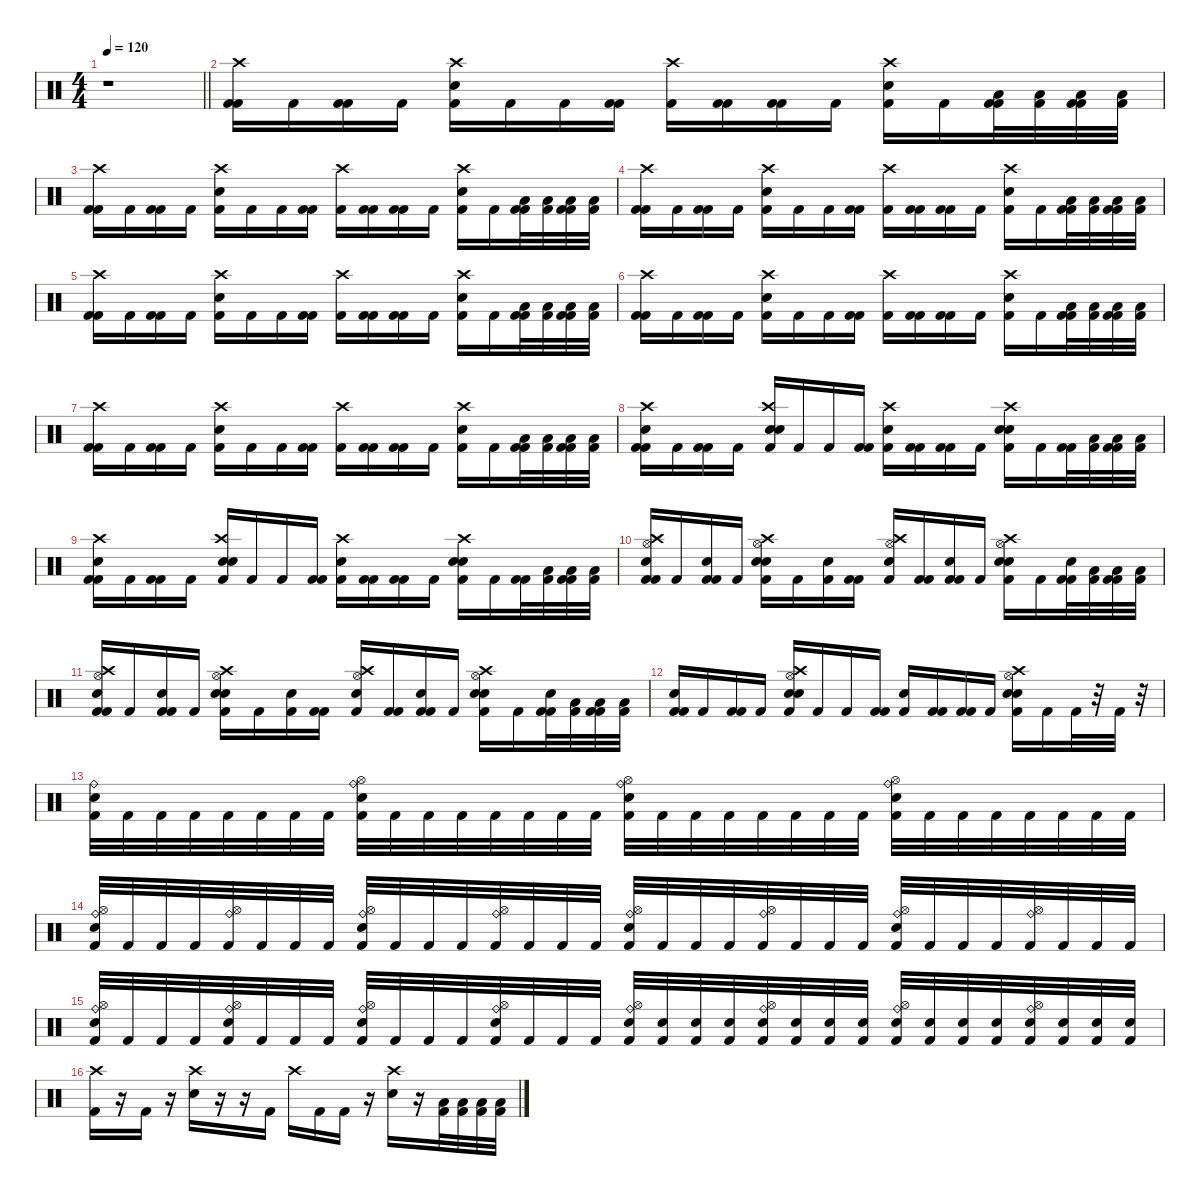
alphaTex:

\defaultSystemsLayout 4
\hideDynamics
\bracketExtendMode nobrackets
\singleTrackTrackNamePolicy hidden
\multiTrackTrackNamePolicy hidden
\firstSystemTrackNameMode fullname
\firstSystemTrackNameOrientation horizontal
\otherSystemsTrackNameOrientation horizontal
\track ("DRUMS" "drm.") {defaultSystemsLayout 4 instrument percussion}
\staff {score}
\articulation defaults
\ts (4 4)
\tempo 120
\clef neutral
\barLineRight lightlight
\ks c
r.1{dy f beam Down} |
("Crash high (hit)" "Kick (hit) 2" "Kick (hit) 2").16{beam Down} "Kick (hit) 2".16{beam Down} ("Kick (hit) 2" "Kick (hit) 2").16{beam Down} "Kick (hit) 2".16{beam Down} ("Crash high (hit)" "Kick (hit) 2" "Snare (hit) 2").16{beam Down} "Kick (hit) 2".16{beam Down} "Kick (hit) 2".16{beam Down} ("Kick (hit) 2" "Kick (hit) 2").16{beam Down} ("Crash high (hit)" "Kick (hit) 2").16{beam Down} ("Kick (hit) 2" "Kick (hit) 2").16{beam Down} ("Kick (hit) 2" "Kick (hit) 2").16{beam Down} "Kick (hit) 2".16{beam Down} ("Crash high (hit)" "Kick (hit) 2" "Snare (hit) 2").16{beam Down} "Kick (hit) 2".16{beam Down} ("Kick (hit) 2" "Low Tom (hit)" "Kick (hit) 2").32{beam Down} ("Low Tom (hit)" "Kick (hit) 2").32{beam Down} ("Kick (hit) 2" "Low Tom (hit)" "Kick (hit) 2").32{beam Down} ("Low Tom (hit)" "Kick (hit) 2").32{beam Down} |
("Crash high (hit)" "Kick (hit) 2" "Kick (hit) 2").16{beam Down} "Kick (hit) 2".16{beam Down} ("Kick (hit) 2" "Kick (hit) 2").16{beam Down} "Kick (hit) 2".16{beam Down} ("Crash high (hit)" "Kick (hit) 2" "Snare (hit) 2").16{beam Down} "Kick (hit) 2".16{beam Down} "Kick (hit) 2".16{beam Down} ("Kick (hit) 2" "Kick (hit) 2").16{beam Down} ("Crash high (hit)" "Kick (hit) 2").16{beam Down} ("Kick (hit) 2" "Kick (hit) 2").16{beam Down} ("Kick (hit) 2" "Kick (hit) 2").16{beam Down} "Kick (hit) 2".16{beam Down} ("Crash high (hit)" "Kick (hit) 2" "Snare (hit) 2").16{beam Down} "Kick (hit) 2".16{beam Down} ("Kick (hit) 2" "Low Tom (hit)" "Kick (hit) 2").32{beam Down} ("Low Tom (hit)" "Kick (hit) 2").32{beam Down} ("Kick (hit) 2" "Low Tom (hit)" "Kick (hit) 2").32{beam Down} ("Low Tom (hit)" "Kick (hit) 2").32{beam Down} |
("Crash high (hit)" "Kick (hit) 2" "Kick (hit) 2").16{beam Down} "Kick (hit) 2".16{beam Down} ("Kick (hit) 2" "Kick (hit) 2").16{beam Down} "Kick (hit) 2".16{beam Down} ("Crash high (hit)" "Kick (hit) 2" "Snare (hit) 2").16{beam Down} "Kick (hit) 2".16{beam Down} "Kick (hit) 2".16{beam Down} ("Kick (hit) 2" "Kick (hit) 2").16{beam Down} ("Crash high (hit)" "Kick (hit) 2").16{beam Down} ("Kick (hit) 2" "Kick (hit) 2").16{beam Down} ("Kick (hit) 2" "Kick (hit) 2").16{beam Down} "Kick (hit) 2".16{beam Down} ("Crash high (hit)" "Kick (hit) 2" "Snare (hit) 2").16{beam Down} "Kick (hit) 2".16{beam Down} ("Kick (hit) 2" "Low Tom (hit)" "Kick (hit) 2").32{beam Down} ("Low Tom (hit)" "Kick (hit) 2").32{beam Down} ("Kick (hit) 2" "Low Tom (hit)" "Kick (hit) 2").32{beam Down} ("Low Tom (hit)" "Kick (hit) 2").32{beam Down} |
("Crash high (hit)" "Kick (hit) 2" "Kick (hit) 2").16{beam Down} "Kick (hit) 2".16{beam Down} ("Kick (hit) 2" "Kick (hit) 2").16{beam Down} "Kick (hit) 2".16{beam Down} ("Crash high (hit)" "Kick (hit) 2" "Snare (hit) 2").16{beam Down} "Kick (hit) 2".16{beam Down} "Kick (hit) 2".16{beam Down} ("Kick (hit) 2" "Kick (hit) 2").16{beam Down} ("Crash high (hit)" "Kick (hit) 2").16{beam Down} ("Kick (hit) 2" "Kick (hit) 2").16{beam Down} ("Kick (hit) 2" "Kick (hit) 2").16{beam Down} "Kick (hit) 2".16{beam Down} ("Crash high (hit)" "Kick (hit) 2" "Snare (hit) 2").16{beam Down} "Kick (hit) 2".16{beam Down} ("Kick (hit) 2" "Low Tom (hit)" "Kick (hit) 2").32{beam Down} ("Low Tom (hit)" "Kick (hit) 2").32{beam Down} ("Kick (hit) 2" "Low Tom (hit)" "Kick (hit) 2").32{beam Down} ("Low Tom (hit)" "Kick (hit) 2").32{beam Down} |
("Crash high (hit)" "Kick (hit) 2" "Kick (hit) 2").16{beam Down} "Kick (hit) 2".16{beam Down} ("Kick (hit) 2" "Kick (hit) 2").16{beam Down} "Kick (hit) 2".16{beam Down} ("Crash high (hit)" "Kick (hit) 2" "Snare (hit) 2").16{beam Down} "Kick (hit) 2".16{beam Down} "Kick (hit) 2".16{beam Down} ("Kick (hit) 2" "Kick (hit) 2").16{beam Down} ("Crash high (hit)" "Kick (hit) 2").16{beam Down} ("Kick (hit) 2" "Kick (hit) 2").16{beam Down} ("Kick (hit) 2" "Kick (hit) 2").16{beam Down} "Kick (hit) 2".16{beam Down} ("Crash high (hit)" "Kick (hit) 2" "Snare (hit) 2").16{beam Down} "Kick (hit) 2".16{beam Down} ("Kick (hit) 2" "Low Tom (hit)" "Kick (hit) 2").32{beam Down} ("Low Tom (hit)" "Kick (hit) 2").32{beam Down} ("Kick (hit) 2" "Low Tom (hit)" "Kick (hit) 2").32{beam Down} ("Low Tom (hit)" "Kick (hit) 2").32{beam Down} |
("Crash high (hit)" "Kick (hit) 2" "Kick (hit) 2").16{beam Down} "Kick (hit) 2".16{beam Down} ("Kick (hit) 2" "Kick (hit) 2").16{beam Down} "Kick (hit) 2".16{beam Down} ("Crash high (hit)" "Kick (hit) 2" "Snare (hit) 2").16{beam Down} "Kick (hit) 2".16{beam Down} "Kick (hit) 2".16{beam Down} ("Kick (hit) 2" "Kick (hit) 2").16{beam Down} ("Crash high (hit)" "Kick (hit) 2").16{beam Down} ("Kick (hit) 2" "Kick (hit) 2").16{beam Down} ("Kick (hit) 2" "Kick (hit) 2").16{beam Down} "Kick (hit) 2".16{beam Down} ("Crash high (hit)" "Kick (hit) 2" "Snare (hit) 2").16{beam Down} "Kick (hit) 2".16{beam Down} ("Kick (hit) 2" "Low Tom (hit)" "Kick (hit) 2").32{beam Down} ("Low Tom (hit)" "Kick (hit) 2").32{beam Down} ("Kick (hit) 2" "Low Tom (hit)" "Kick (hit) 2").32{beam Down} ("Low Tom (hit)" "Kick (hit) 2").32{beam Down} |
("Crash high (hit)" "Kick (hit) 2" "Snare (hit) 2" "Kick (hit) 2").16{beam Down} "Kick (hit) 2".16{beam Down} ("Kick (hit) 2" "Kick (hit) 2").16{beam Down} "Kick (hit) 2".16{beam Down} ("Crash high (hit)" "Kick (hit) 2" "Snare (hit) 2" "Snare (hit) 2").16{beam Up} "Kick (hit) 2".16{beam Up} "Kick (hit) 2".16{beam Up} ("Kick (hit) 2" "Kick (hit) 2").16{beam Up} ("Crash high (hit)" "Kick (hit) 2" "Snare (hit) 2").16{beam Down} ("Kick (hit) 2" "Kick (hit) 2").16{beam Down} ("Kick (hit) 2" "Kick (hit) 2").16{beam Down} "Kick (hit) 2".16{beam Down} ("Crash high (hit)" "Kick (hit) 2" "Snare (hit) 2" "Snare (hit) 2").16{beam Down} "Kick (hit) 2".16{beam Down} ("Kick (hit) 2" "Kick (hit) 2").32{beam Down} ("Low Tom (hit)" "Kick (hit) 2").32{beam Down} ("Kick (hit) 2" "Low Tom (hit)" "Kick (hit) 2").32{beam Down} ("Low Tom (hit)" "Kick (hit) 2").32{beam Down} |
("Crash high (hit)" "Kick (hit) 2" "Snare (hit) 2" "Kick (hit) 2").16{beam Down} "Kick (hit) 2".16{beam Down} ("Kick (hit) 2" "Kick (hit) 2").16{beam Down} "Kick (hit) 2".16{beam Down} ("Crash high (hit)" "Kick (hit) 2" "Snare (hit) 2" "Snare (hit) 2").16{beam Up} "Kick (hit) 2".16{beam Up} "Kick (hit) 2".16{beam Up} ("Kick (hit) 2" "Kick (hit) 2").16{beam Up} ("Crash high (hit)" "Kick (hit) 2" "Snare (hit) 2").16{beam Down} ("Kick (hit) 2" "Kick (hit) 2").16{beam Down} ("Kick (hit) 2" "Kick (hit) 2").16{beam Down} "Kick (hit) 2".16{beam Down} ("Crash high (hit)" "Kick (hit) 2" "Snare (hit) 2" "Snare (hit) 2").16{beam Down} "Kick (hit) 2".16{beam Down} ("Kick (hit) 2" "Kick (hit) 2").32{beam Down} ("Low Tom (hit)" "Kick (hit) 2").32{beam Down} ("Kick (hit) 2" "Low Tom (hit)" "Kick (hit) 2").32{beam Down} ("Low Tom (hit)" "Kick (hit) 2").32{beam Down} |
("Hi-Hat (open)" "Crash high (hit)" "Kick (hit) 2" "Snare (hit) 2" "Kick (hit) 2").16{beam Up} "Kick (hit) 2".16{beam Up} ("Kick (hit) 2" "Snare (hit) 2" "Kick (hit) 2").16{beam Up} "Kick (hit) 2".16{beam Up} ("Hi-Hat (open)" "Crash high (hit)" "Kick (hit) 2" "Snare (hit) 2" "Snare (hit) 2").16{beam Down} "Kick (hit) 2".16{beam Down} ("Kick (hit) 2" "Snare (hit) 2").16{beam Down} ("Kick (hit) 2" "Kick (hit) 2").16{beam Down} ("Hi-Hat (open)" "Crash high (hit)" "Kick (hit) 2" "Snare (hit) 2").16{beam Up} ("Kick (hit) 2" "Kick (hit) 2").16{beam Up} ("Kick (hit) 2" "Snare (hit) 2" "Kick (hit) 2").16{beam Up} "Kick (hit) 2".16{beam Up} ("Hi-Hat (open)" "Crash high (hit)" "Kick (hit) 2" "Snare (hit) 2" "Snare (hit) 2").16{beam Down} "Kick (hit) 2".16{beam Down} ("Kick (hit) 2" "Snare (hit) 2" "Kick (hit) 2").32{beam Down} ("Low Tom (hit)" "Kick (hit) 2").32{beam Down} ("Kick (hit) 2" "Low Tom (hit)" "Kick (hit) 2").32{beam Down} ("Low Tom (hit)" "Kick (hit) 2").32{beam Down} |
("Hi-Hat (open)" "Crash high (hit)" "Kick (hit) 2" "Snare (hit) 2" "Kick (hit) 2").16{beam Up} "Kick (hit) 2".16{beam Up} ("Kick (hit) 2" "Snare (hit) 2" "Kick (hit) 2").16{beam Up} "Kick (hit) 2".16{beam Up} ("Hi-Hat (open)" "Crash high (hit)" "Kick (hit) 2" "Snare (hit) 2" "Snare (hit) 2").16{beam Down} "Kick (hit) 2".16{beam Down} ("Kick (hit) 2" "Snare (hit) 2").16{beam Down} ("Kick (hit) 2" "Kick (hit) 2").16{beam Down} ("Hi-Hat (open)" "Crash high (hit)" "Kick (hit) 2" "Snare (hit) 2").16{beam Up} ("Kick (hit) 2" "Kick (hit) 2").16{beam Up} ("Kick (hit) 2" "Snare (hit) 2" "Kick (hit) 2").16{beam Up} "Kick (hit) 2".16{beam Up} ("Hi-Hat (open)" "Crash high (hit)" "Kick (hit) 2" "Snare (hit) 2" "Snare (hit) 2").16{beam Down} "Kick (hit) 2".16{beam Down} ("Kick (hit) 2" "Snare (hit) 2" "Kick (hit) 2").32{beam Down} ("Low Tom (hit)" "Kick (hit) 2").32{beam Down} ("Kick (hit) 2" "Low Tom (hit)" "Kick (hit) 2").32{beam Down} ("Low Tom (hit)" "Kick (hit) 2").32{beam Down} |
("Kick (hit) 2" "Snare (hit) 2" "Kick (hit) 2").16{beam Up} "Kick (hit) 2".16{beam Up} ("Kick (hit) 2" "Kick (hit) 2").16{beam Up} "Kick (hit) 2".16{beam Up} ("Hi-Hat (open)" "Crash high (hit)" "Kick (hit) 2" "Snare (hit) 2" "Snare (hit) 2").16{beam Up} "Kick (hit) 2".16{beam Up} "Kick (hit) 2".16{beam Up} ("Kick (hit) 2" "Kick (hit) 2").16{beam Up} ("Kick (hit) 2" "Snare (hit) 2").16{beam Up} ("Kick (hit) 2" "Kick (hit) 2").16{beam Up} ("Kick (hit) 2" "Kick (hit) 2").16{beam Up} "Kick (hit) 2".16{beam Up} ("Hi-Hat (open)" "Crash high (hit)" "Kick (hit) 2" "Snare (hit) 2" "Snare (hit) 2").16{beam Down} "Kick (hit) 2".16{beam Down} "Kick (hit) 2".32{beam Down} r.32{beam Down} "Kick (hit) 2".32{beam Down} r.32{beam Down} |
("Ride (bell)" "Kick (hit) 2" "Snare (hit) 2").32{beam Down} "Kick (hit) 2".32{beam Down} "Kick (hit) 2".32{beam Down} "Kick (hit) 2".32{beam Down} "Kick (hit) 2".32{beam Down} "Kick (hit) 2".32{beam Down} "Kick (hit) 2".32{beam Down} "Kick (hit) 2".32{beam Down} ("Hi-Hat (open)" "Ride (bell)" "Kick (hit) 2" "Snare (hit) 2").32{beam Down} "Kick (hit) 2".32{beam Down} "Kick (hit) 2".32{beam Down} "Kick (hit) 2".32{beam Down} "Kick (hit) 2".32{beam Down} "Kick (hit) 2".32{beam Down} "Kick (hit) 2".32{beam Down} "Kick (hit) 2".32{beam Down} ("Hi-Hat (open)" "Ride (bell)" "Kick (hit) 2" "Snare (hit) 2").32{beam Down} "Kick (hit) 2".32{beam Down} "Kick (hit) 2".32{beam Down} "Kick (hit) 2".32{beam Down} "Kick (hit) 2".32{beam Down} "Kick (hit) 2".32{beam Down} "Kick (hit) 2".32{beam Down} "Kick (hit) 2".32{beam Down} ("Hi-Hat (open)" "Ride (bell)" "Kick (hit) 2" "Snare (hit) 2").32{beam Down} "Kick (hit) 2".32{beam Down} "Kick (hit) 2".32{beam Down} "Kick (hit) 2".32{beam Down} "Kick (hit) 2".32{beam Down} "Kick (hit) 2".32{beam Down} "Kick (hit) 2".32{beam Down} "Kick (hit) 2".32{beam Down} |
("Hi-Hat (open)" "Ride (bell)" "Kick (hit) 2" "Snare (hit) 2").32{beam Up} "Kick (hit) 2".32{beam Up} "Kick (hit) 2".32{beam Up} "Kick (hit) 2".32{beam Up} ("Hi-Hat (open)" "Ride (bell)" "Kick (hit) 2").32{beam Up} "Kick (hit) 2".32{beam Up} "Kick (hit) 2".32{beam Up} "Kick (hit) 2".32{beam Up} ("Hi-Hat (open)" "Ride (bell)" "Kick (hit) 2" "Snare (hit) 2").32{beam Up} "Kick (hit) 2".32{beam Up} "Kick (hit) 2".32{beam Up} "Kick (hit) 2".32{beam Up} ("Hi-Hat (open)" "Ride (bell)" "Kick (hit) 2").32{beam Up} "Kick (hit) 2".32{beam Up} "Kick (hit) 2".32{beam Up} "Kick (hit) 2".32{beam Up} ("Hi-Hat (open)" "Ride (bell)" "Kick (hit) 2" "Snare (hit) 2").32{beam Up} "Kick (hit) 2".32{beam Up} "Kick (hit) 2".32{beam Up} "Kick (hit) 2".32{beam Up} ("Hi-Hat (open)" "Ride (bell)" "Kick (hit) 2").32{beam Up} "Kick (hit) 2".32{beam Up} "Kick (hit) 2".32{beam Up} "Kick (hit) 2".32{beam Up} ("Hi-Hat (open)" "Ride (bell)" "Kick (hit) 2" "Snare (hit) 2").32{beam Up} "Kick (hit) 2".32{beam Up} "Kick (hit) 2".32{beam Up} "Kick (hit) 2".32{beam Up} ("Hi-Hat (open)" "Ride (bell)" "Kick (hit) 2").32{beam Up} "Kick (hit) 2".32{beam Up} "Kick (hit) 2".32{beam Up} "Kick (hit) 2".32{beam Up} |
("Hi-Hat (open)" "Ride (bell)" "Kick (hit) 2" "Snare (hit) 2").32{beam Up} "Kick (hit) 2".32{beam Up} "Kick (hit) 2".32{beam Up} "Kick (hit) 2".32{beam Up} ("Hi-Hat (open)" "Ride (bell)" "Kick (hit) 2" "Snare (hit) 2").32{beam Up} "Kick (hit) 2".32{beam Up} "Kick (hit) 2".32{beam Up} "Kick (hit) 2".32{beam Up} ("Hi-Hat (open)" "Ride (bell)" "Kick (hit) 2" "Snare (hit) 2").32{beam Up} "Kick (hit) 2".32{beam Up} "Kick (hit) 2".32{beam Up} "Kick (hit) 2".32{beam Up} ("Hi-Hat (open)" "Ride (bell)" "Kick (hit) 2" "Snare (hit) 2").32{beam Up} "Kick (hit) 2".32{beam Up} "Kick (hit) 2".32{beam Up} "Kick (hit) 2".32{beam Up} ("Hi-Hat (open)" "Ride (bell)" "Kick (hit) 2" "Snare (hit) 2").32{beam Up} ("Kick (hit) 2" "Snare (hit) 2").32{beam Up} ("Kick (hit) 2" "Snare (hit) 2").32{beam Up} ("Kick (hit) 2" "Snare (hit) 2").32{beam Up} ("Hi-Hat (open)" "Ride (bell)" "Kick (hit) 2" "Snare (hit) 2").32{beam Up} ("Kick (hit) 2" "Snare (hit) 2").32{beam Up} ("Kick (hit) 2" "Snare (hit) 2").32{beam Up} ("Kick (hit) 2" "Snare (hit) 2").32{beam Up} ("Hi-Hat (open)" "Ride (bell)" "Kick (hit) 2" "Snare (hit) 2").32{beam Up} ("Kick (hit) 2" "Snare (hit) 2").32{beam Up} ("Kick (hit) 2" "Snare (hit) 2").32{beam Up} ("Kick (hit) 2" "Snare (hit) 2").32{beam Up} ("Hi-Hat (open)" "Ride (bell)" "Kick (hit) 2" "Snare (hit) 2").32{beam Up} ("Kick (hit) 2" "Snare (hit) 2").32{beam Up} ("Kick (hit) 2" "Snare (hit) 2").32{beam Up} ("Kick (hit) 2" "Snare (hit) 2").32{beam Up} |
("Crash high (hit)" "Kick (hit) 2").16{beam Down} r.16{beam Down} "Kick (hit) 2".16{beam Down} r.16{beam Down} ("Crash high (hit)" "Snare (hit) 2").16{beam Down} r.16{beam Down} r.16{beam Down} "Kick (hit) 2".16{beam Down} "Crash high (hit)".16{beam Down} "Kick (hit) 2".16{beam Down} "Kick (hit) 2".16{beam Down} r.16{beam Down} ("Crash high (hit)" "Snare (hit) 2").16{beam Down} r.16{beam Down} ("Low Tom (hit)" "Kick (hit) 2").32{beam Down} ("Low Tom (hit)" "Kick (hit) 2").32{beam Down} ("Low Tom (hit)" "Kick (hit) 2").32{beam Down} ("Low Tom (hit)" "Kick (hit) 2").32{beam Down}
